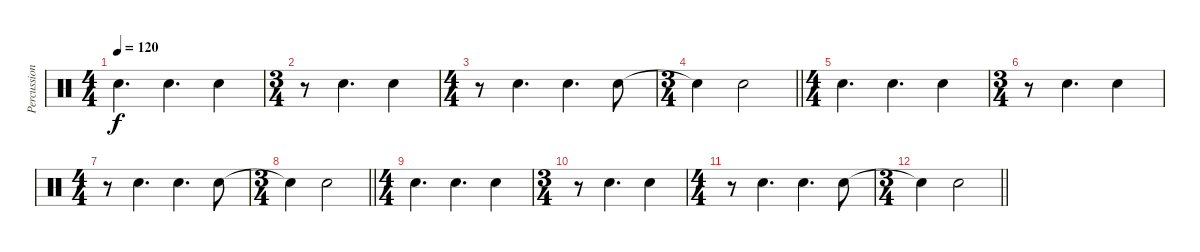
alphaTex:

\track ("Percussion" "Percussion") {instrument percussion}
\staff {score}
\articulation defaults
\ts (4 4)
\tempo 120
\clef neutral
\ks c "Electric Snare (hit)".4{d dy f} "Electric Snare (hit)".4{d} "Electric Snare (hit)".4
|
\ts (3 4)
r.8 "Electric Snare (hit)".4{d} "Electric Snare (hit)".4 |
\ts (4 4)
r.8 "Electric Snare (hit)".4{d} "Electric Snare (hit)".4{d} "Electric Snare (hit)".8 |
\ts (3 4)
\barLineRight lightlight "Snare (hit)"{t}.4 "Electric Snare (hit)".2
|
\ts (4 4)
"Electric Snare (hit)".4{d} "Electric Snare (hit)".4{d} "Electric Snare (hit)".4 |
\ts (3 4)
r.8 "Electric Snare (hit)".4{d} "Electric Snare (hit)".4 |
\ts (4 4)
r.8 "Electric Snare (hit)".4{d} "Electric Snare (hit)".4{d} "Electric Snare (hit)".8 |
\ts (3 4)
\barLineRight lightlight "Snare (hit)"{t}.4 "Electric Snare (hit)".2
|
\ts (4 4)
"Electric Snare (hit)".4{d} "Electric Snare (hit)".4{d} "Electric Snare (hit)".4 |
\ts (3 4)
r.8 "Electric Snare (hit)".4{d} "Electric Snare (hit)".4 |
\ts (4 4)
r.8 "Electric Snare (hit)".4{d} "Electric Snare (hit)".4{d} "Electric Snare (hit)".8 |
\ts (3 4)
\barLineRight lightlight "Snare (hit)"{t}.4 "Electric Snare (hit)".2
